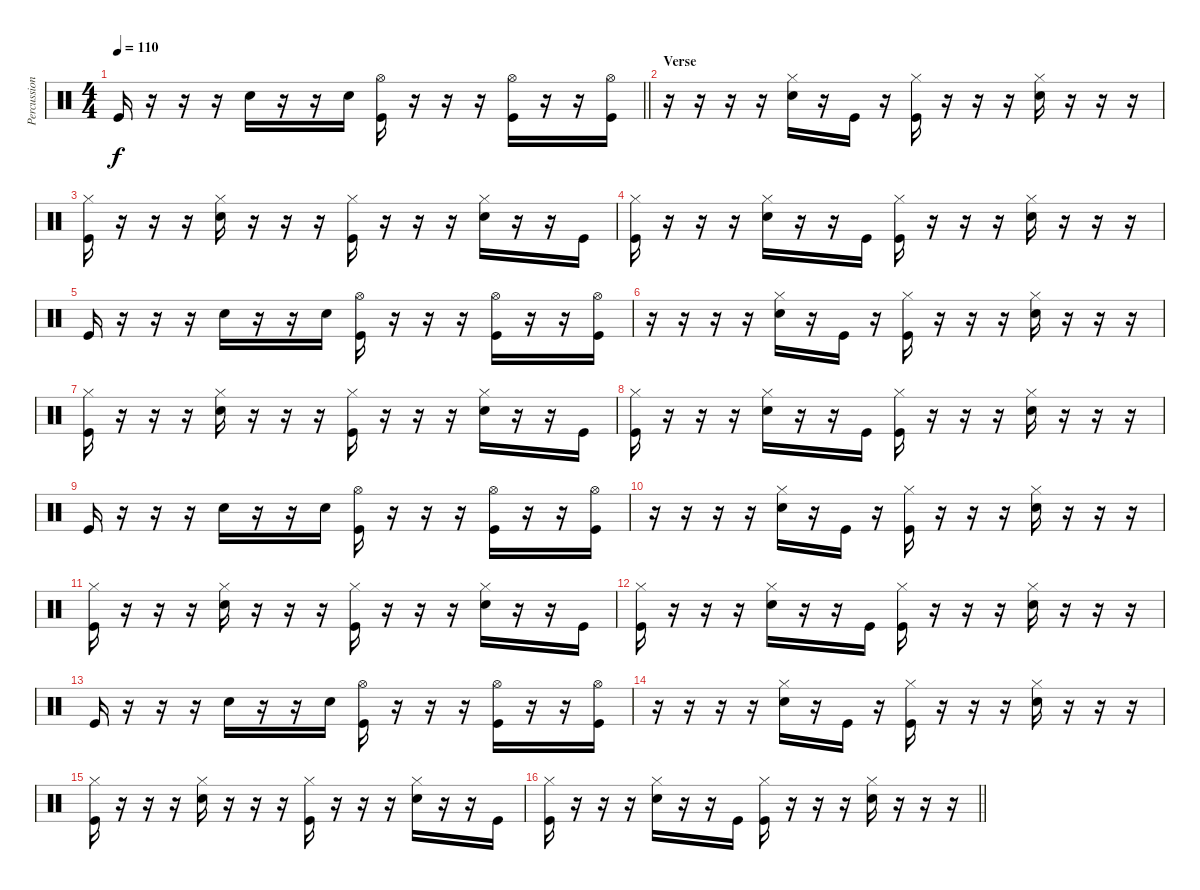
\track ("Percussion" "Percussion") {instrument percussion}
\staff {score}
\articulation defaults
\ts (4 4)
\tempo 110
\clef neutral
\barLineRight lightlight
\ks c "Kick (hit)".16{dy f}
r.16 r.16 r.16 "Snare (hit) 2".16 r.16 r.16 "Snare (hit) 2".16 ("Hi-Hat (open)" "Kick (hit)").16 r.16 r.16 r.16 ("Hi-Hat (open)" "Kick (hit)").16 r.16 r.16 ("Hi-Hat (open)" "Kick (hit)").16 |
\section ("" "Verse")
r.16 r.16 r.16 r.16 ("Hi-Hat (closed)" "Snare (hit) 2").16 r.16 "Kick (hit)".16 r.16 ("Hi-Hat (closed)" "Kick (hit)").16 r.16 r.16 r.16 ("Hi-Hat (closed)" "Snare (hit) 2").16 r.16 r.16 r.16 |
("Hi-Hat (closed)" "Kick (hit)").16 r.16 r.16 r.16 ("Hi-Hat (closed)" "Snare (hit) 2").16 r.16 r.16 r.16 ("Hi-Hat (closed)" "Kick (hit)").16 r.16 r.16 r.16 ("Hi-Hat (closed)" "Snare (hit) 2").16 r.16 r.16 "Kick (hit)".16 |
("Hi-Hat (closed)" "Kick (hit)").16 r.16 r.16 r.16 ("Hi-Hat (closed)" "Snare (hit) 2").16 r.16 r.16 "Kick (hit)".16 ("Hi-Hat (closed)" "Kick (hit)").16 r.16 r.16 r.16 ("Hi-Hat (closed)" "Snare (hit) 2").16 r.16 r.16 r.16 |
"Kick (hit)".16 r.16 r.16 r.16 "Snare (hit) 2".16 r.16 r.16 "Snare (hit) 2".16 ("Hi-Hat (open)" "Kick (hit)").16 r.16 r.16 r.16 ("Hi-Hat (open)" "Kick (hit)").16 r.16 r.16 ("Hi-Hat (open)" "Kick (hit)").16 |
r.16 r.16 r.16 r.16 ("Hi-Hat (closed)" "Snare (hit) 2").16 r.16 "Kick (hit)".16 r.16 ("Hi-Hat (closed)" "Kick (hit)").16 r.16 r.16 r.16 ("Hi-Hat (closed)" "Snare (hit) 2").16 r.16 r.16 r.16 |
("Hi-Hat (closed)" "Kick (hit)").16 r.16 r.16 r.16 ("Hi-Hat (closed)" "Snare (hit) 2").16 r.16 r.16 r.16 ("Hi-Hat (closed)" "Kick (hit)").16 r.16 r.16 r.16 ("Hi-Hat (closed)" "Snare (hit) 2").16 r.16 r.16 "Kick (hit)".16 |
("Hi-Hat (closed)" "Kick (hit)").16 r.16 r.16 r.16 ("Hi-Hat (closed)" "Snare (hit) 2").16 r.16 r.16 "Kick (hit)".16 ("Hi-Hat (closed)" "Kick (hit)").16 r.16 r.16 r.16 ("Hi-Hat (closed)" "Snare (hit) 2").16 r.16 r.16 r.16 |
"Kick (hit)".16 r.16 r.16 r.16 "Snare (hit) 2".16 r.16 r.16 "Snare (hit) 2".16 ("Hi-Hat (open)" "Kick (hit)").16 r.16 r.16 r.16 ("Hi-Hat (open)" "Kick (hit)").16 r.16 r.16 ("Hi-Hat (open)" "Kick (hit)").16 |
r.16 r.16 r.16 r.16 ("Hi-Hat (closed)" "Snare (hit) 2").16 r.16 "Kick (hit)".16 r.16 ("Hi-Hat (closed)" "Kick (hit)").16 r.16 r.16 r.16 ("Hi-Hat (closed)" "Snare (hit) 2").16 r.16 r.16 r.16 |
("Hi-Hat (closed)" "Kick (hit)").16 r.16 r.16 r.16 ("Hi-Hat (closed)" "Snare (hit) 2").16 r.16 r.16 r.16 ("Hi-Hat (closed)" "Kick (hit)").16 r.16 r.16 r.16 ("Hi-Hat (closed)" "Snare (hit) 2").16 r.16 r.16 "Kick (hit)".16 |
("Hi-Hat (closed)" "Kick (hit)").16 r.16 r.16 r.16 ("Hi-Hat (closed)" "Snare (hit) 2").16 r.16 r.16 "Kick (hit)".16 ("Hi-Hat (closed)" "Kick (hit)").16 r.16 r.16 r.16 ("Hi-Hat (closed)" "Snare (hit) 2").16 r.16 r.16 r.16 |
"Kick (hit)".16 r.16 r.16 r.16 "Snare (hit) 2".16 r.16 r.16 "Snare (hit) 2".16 ("Hi-Hat (open)" "Kick (hit)").16 r.16 r.16 r.16 ("Hi-Hat (open)" "Kick (hit)").16 r.16 r.16 ("Hi-Hat (open)" "Kick (hit)").16 |
r.16 r.16 r.16 r.16 ("Hi-Hat (closed)" "Snare (hit) 2").16 r.16 "Kick (hit)".16 r.16 ("Hi-Hat (closed)" "Kick (hit)").16 r.16 r.16 r.16 ("Hi-Hat (closed)" "Snare (hit) 2").16 r.16 r.16 r.16 |
("Hi-Hat (closed)" "Kick (hit)").16 r.16 r.16 r.16 ("Hi-Hat (closed)" "Snare (hit) 2").16 r.16 r.16 r.16 ("Hi-Hat (closed)" "Kick (hit)").16 r.16 r.16 r.16 ("Hi-Hat (closed)" "Snare (hit) 2").16 r.16 r.16 "Kick (hit)".16 |
\barLineRight lightlight
("Hi-Hat (closed)" "Kick (hit)").16 r.16 r.16 r.16 ("Hi-Hat (closed)" "Snare (hit) 2").16 r.16 r.16 "Kick (hit)".16 ("Hi-Hat (closed)" "Kick (hit)").16 r.16 r.16 r.16 ("Hi-Hat (closed)" "Snare (hit) 2").16 r.16 r.16 r.16
